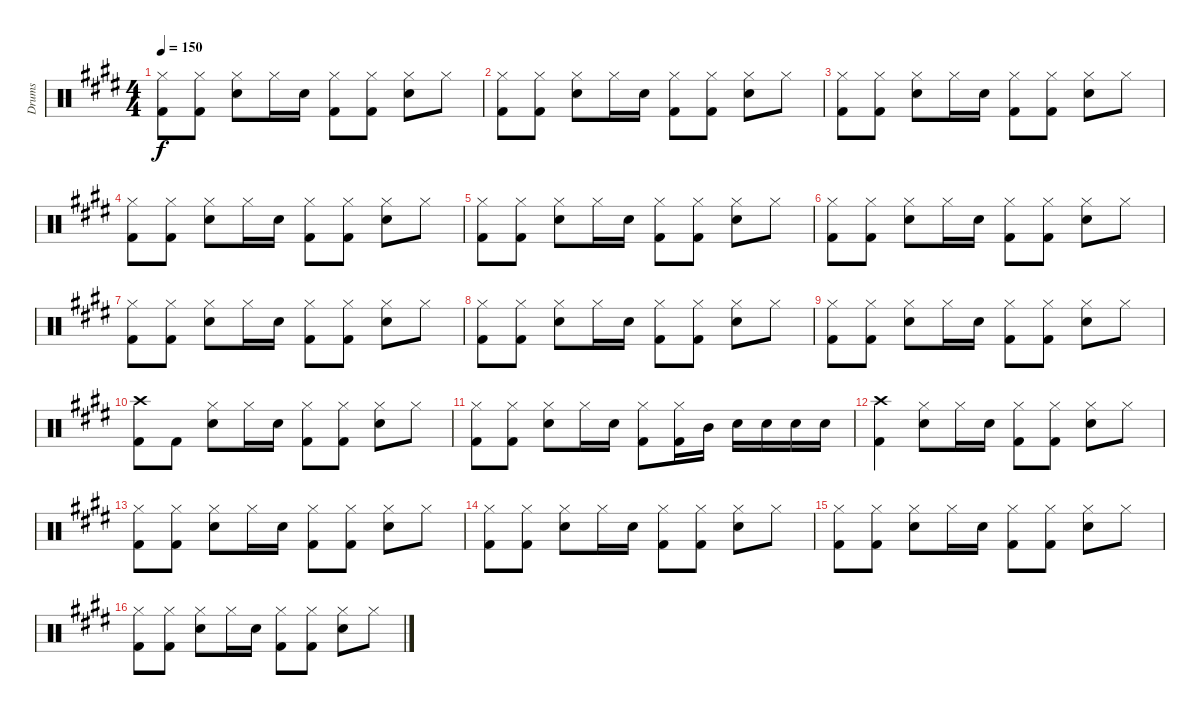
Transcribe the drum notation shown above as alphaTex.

\track ("Drums" "Drums") {instrument percussion}
\staff {score}
\articulation defaults
\ts (4 4)
\tempo 150
\clef neutral
\ks e
("Hi-Hat (closed)" "Kick (hit) 2").8{dy f} ("Hi-Hat (closed)" "Kick (hit) 2").8 ("Hi-Hat (closed)" "Snare (hit) 2").8 "Hi-Hat (closed)".16 "Snare (hit) 2".16 ("Hi-Hat (closed)" "Kick (hit) 2").8 ("Hi-Hat (closed)" "Kick (hit) 2").8 ("Hi-Hat (closed)" "Snare (hit) 2").8 "Hi-Hat (closed)".8 |
("Hi-Hat (closed)" "Kick (hit) 2").8 ("Hi-Hat (closed)" "Kick (hit) 2").8 ("Hi-Hat (closed)" "Snare (hit) 2").8 "Hi-Hat (closed)".16 "Snare (hit) 2".16 ("Hi-Hat (closed)" "Kick (hit) 2").8 ("Hi-Hat (closed)" "Kick (hit) 2").8 ("Hi-Hat (closed)" "Snare (hit) 2").8 "Hi-Hat (closed)".8 |
("Hi-Hat (closed)" "Kick (hit) 2").8 ("Hi-Hat (closed)" "Kick (hit) 2").8 ("Hi-Hat (closed)" "Snare (hit) 2").8 "Hi-Hat (closed)".16 "Snare (hit) 2".16 ("Hi-Hat (closed)" "Kick (hit) 2").8 ("Hi-Hat (closed)" "Kick (hit) 2").8 ("Hi-Hat (closed)" "Snare (hit) 2").8 "Hi-Hat (closed)".8 |
("Hi-Hat (closed)" "Kick (hit) 2").8 ("Hi-Hat (closed)" "Kick (hit) 2").8 ("Hi-Hat (closed)" "Snare (hit) 2").8 "Hi-Hat (closed)".16 "Snare (hit) 2".16 ("Hi-Hat (closed)" "Kick (hit) 2").8 ("Hi-Hat (closed)" "Kick (hit) 2").8 ("Hi-Hat (closed)" "Snare (hit) 2").8 "Hi-Hat (closed)".8 |
("Hi-Hat (closed)" "Kick (hit) 2").8 ("Hi-Hat (closed)" "Kick (hit) 2").8 ("Hi-Hat (closed)" "Snare (hit) 2").8 "Hi-Hat (closed)".16 "Snare (hit) 2".16 ("Hi-Hat (closed)" "Kick (hit) 2").8 ("Hi-Hat (closed)" "Kick (hit) 2").8 ("Hi-Hat (closed)" "Snare (hit) 2").8 "Hi-Hat (closed)".8 |
("Hi-Hat (closed)" "Kick (hit) 2").8 ("Hi-Hat (closed)" "Kick (hit) 2").8 ("Hi-Hat (closed)" "Snare (hit) 2").8 "Hi-Hat (closed)".16 "Snare (hit) 2".16 ("Hi-Hat (closed)" "Kick (hit) 2").8 ("Hi-Hat (closed)" "Kick (hit) 2").8 ("Hi-Hat (closed)" "Snare (hit) 2").8 "Hi-Hat (closed)".8 |
("Hi-Hat (closed)" "Kick (hit) 2").8 ("Hi-Hat (closed)" "Kick (hit) 2").8 ("Hi-Hat (closed)" "Snare (hit) 2").8 "Hi-Hat (closed)".16 "Snare (hit) 2".16 ("Hi-Hat (closed)" "Kick (hit) 2").8 ("Hi-Hat (closed)" "Kick (hit) 2").8 ("Hi-Hat (closed)" "Snare (hit) 2").8 "Hi-Hat (closed)".8 |
("Hi-Hat (closed)" "Kick (hit) 2").8 ("Hi-Hat (closed)" "Kick (hit) 2").8 ("Hi-Hat (closed)" "Snare (hit) 2").8 "Hi-Hat (closed)".16 "Snare (hit) 2".16 ("Hi-Hat (closed)" "Kick (hit) 2").8 ("Hi-Hat (closed)" "Kick (hit) 2").8 ("Hi-Hat (closed)" "Snare (hit) 2").8 "Hi-Hat (closed)".8 |
("Hi-Hat (closed)" "Kick (hit) 2").8 ("Hi-Hat (closed)" "Kick (hit) 2").8 ("Hi-Hat (closed)" "Snare (hit) 2").8 "Hi-Hat (closed)".16 "Snare (hit) 2".16 ("Hi-Hat (closed)" "Kick (hit) 2").8 ("Hi-Hat (closed)" "Kick (hit) 2").8 ("Hi-Hat (closed)" "Snare (hit) 2").8 "Hi-Hat (closed)".8 |
("Crash high (hit)" "Kick (hit) 2").8 "Kick (hit) 2".8 ("Hi-Hat (closed)" "Snare (hit) 2").8 "Hi-Hat (closed)".16 "Snare (hit) 2".16 ("Hi-Hat (closed)" "Kick (hit) 2").8 ("Hi-Hat (closed)" "Kick (hit) 2").8 ("Hi-Hat (closed)" "Snare (hit) 2").8 "Hi-Hat (closed)".8 |
("Hi-Hat (closed)" "Kick (hit) 2").8 ("Hi-Hat (closed)" "Kick (hit) 2").8 ("Hi-Hat (closed)" "Snare (hit) 2").8 "Hi-Hat (closed)".16 "Snare (hit) 2".16 ("Hi-Hat (closed)" "Kick (hit) 2").8 ("Hi-Hat (closed)" "Kick (hit) 2").16 "Mid Tom (hit)".16 "Snare (hit) 2".16 "Snare (hit) 2".16 "Snare (hit) 2".16 "Snare (hit) 2".16 |
("Crash high (hit)" "Kick (hit) 2").4 ("Hi-Hat (closed)" "Snare (hit) 2").8 "Hi-Hat (closed)".16 "Snare (hit) 2".16 ("Hi-Hat (closed)" "Kick (hit) 2").8 ("Hi-Hat (closed)" "Kick (hit) 2").8 ("Hi-Hat (closed)" "Snare (hit) 2").8 "Hi-Hat (closed)".8 |
("Hi-Hat (closed)" "Kick (hit) 2").8 ("Hi-Hat (closed)" "Kick (hit) 2").8 ("Hi-Hat (closed)" "Snare (hit) 2").8 "Hi-Hat (closed)".16 "Snare (hit) 2".16 ("Hi-Hat (closed)" "Kick (hit) 2").8 ("Hi-Hat (closed)" "Kick (hit) 2").8 ("Hi-Hat (closed)" "Snare (hit) 2").8 "Hi-Hat (closed)".8 |
("Hi-Hat (closed)" "Kick (hit) 2").8 ("Hi-Hat (closed)" "Kick (hit) 2").8 ("Hi-Hat (closed)" "Snare (hit) 2").8 "Hi-Hat (closed)".16 "Snare (hit) 2".16 ("Hi-Hat (closed)" "Kick (hit) 2").8 ("Hi-Hat (closed)" "Kick (hit) 2").8 ("Hi-Hat (closed)" "Snare (hit) 2").8 "Hi-Hat (closed)".8 |
("Hi-Hat (closed)" "Kick (hit) 2").8 ("Hi-Hat (closed)" "Kick (hit) 2").8 ("Hi-Hat (closed)" "Snare (hit) 2").8 "Hi-Hat (closed)".16 "Snare (hit) 2".16 ("Hi-Hat (closed)" "Kick (hit) 2").8 ("Hi-Hat (closed)" "Kick (hit) 2").8 ("Hi-Hat (closed)" "Snare (hit) 2").8 "Hi-Hat (closed)".8 |
("Hi-Hat (closed)" "Kick (hit) 2").8 ("Hi-Hat (closed)" "Kick (hit) 2").8 ("Hi-Hat (closed)" "Snare (hit) 2").8 "Hi-Hat (closed)".16 "Snare (hit) 2".16 ("Hi-Hat (closed)" "Kick (hit) 2").8 ("Hi-Hat (closed)" "Kick (hit) 2").8 ("Hi-Hat (closed)" "Snare (hit) 2").8 "Hi-Hat (closed)".8
